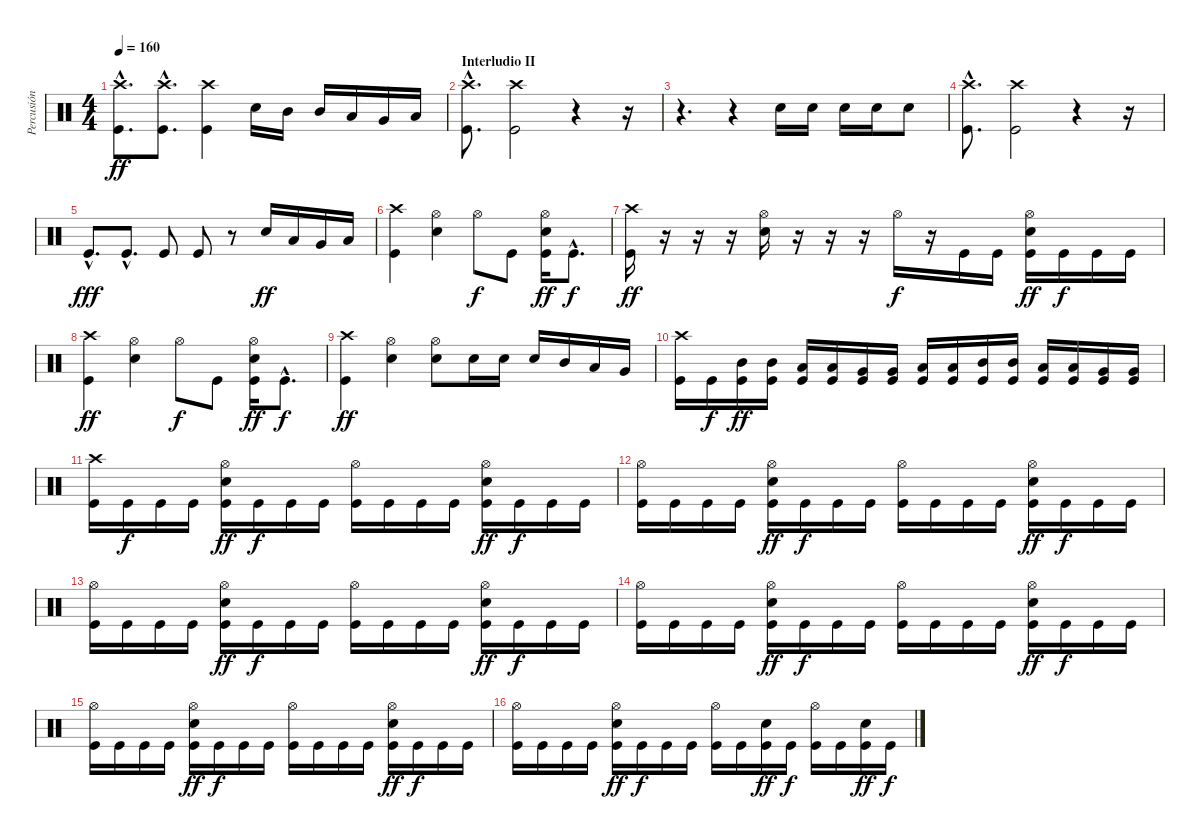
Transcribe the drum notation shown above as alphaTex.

\track ("Percusión" "Percusión") {instrument percussion}
\staff {score}
\articulation defaults
\ts (4 4)
\tempo 160
\clef neutral
\ks c
("Kick (hit)"{hac} "Crash high (hit)"{hac}).8{d dy ff} ("Kick (hit)"{hac} "Crash high (hit)"{hac}).8{d} ("Kick (hit)" "Crash high (hit)").4 "Electric Snare (hit)".16 "Mid Tom (hit)".16 "Mid Tom (hit)".16 "Low Tom (hit)".16 "Very Low Tom (hit)".16 "Low Floor Tom (hit)".16 |
\section ("" "Interludio II")
("Kick (hit)"{hac} "Crash high (hit)"{hac}).8{d} ("Kick (hit)" "Crash high (hit)").2 r.4 r.16 |
r.4{d} r.4 "Electric Snare (hit)".16 "Electric Snare (hit)".16 "Electric Snare (hit)".16 "Electric Snare (hit)".16 "Electric Snare (hit)".8 |
("Kick (hit)"{hac} "Crash high (hit)"{hac}).8{d} ("Kick (hit)" "Crash high (hit)").2 r.4 r.16 |
"Kick (hit)"{hac}.8{d dy fff} "Kick (hit)"{hac}.8{d} "Kick (hit)".8 "Kick (hit)".8 r.8 "Electric Snare (hit)".16{dy ff} "Low Tom (hit)".16 "Very Low Tom (hit)".16 "Low Floor Tom (hit)".16 |
("Kick (hit)" "Crash high (hit)").4 ("Electric Snare (hit)" "Hi-Hat (open)").4 "Hi-Hat (open)".8{dy f} "Kick (hit)".8 ("Kick (hit)" "Electric Snare (hit)" "Hi-Hat (open)").16{dy ff} "Kick (hit)"{hac}.8{d dy f} |
("Kick (hit)" "Crash high (hit)").16{dy ff} r.16 r.16 r.16 ("Electric Snare (hit)" "Hi-Hat (open)").16 r.16 r.16 r.16 "Hi-Hat (open)".16{dy f} r.16 "Kick (hit)".16 "Kick (hit)".16 ("Kick (hit)" "Electric Snare (hit)" "Hi-Hat (open)").16{dy ff} "Kick (hit)".16{dy f} "Kick (hit)".16 "Kick (hit)".16 |
("Kick (hit)" "Crash high (hit)").4{dy ff} ("Electric Snare (hit)" "Hi-Hat (open)").4 "Hi-Hat (open)".8{dy f} "Kick (hit)".8 ("Kick (hit)" "Electric Snare (hit)" "Hi-Hat (open)").16{dy ff} "Kick (hit)"{hac}.8{d dy f} |
("Kick (hit)" "Crash high (hit)").4{dy ff} ("Electric Snare (hit)" "Hi-Hat (open)").4 ("Electric Snare (hit)" "Hi-Hat (open)").8 "Electric Snare (hit)".16 "Electric Snare (hit)".16 "Electric Snare (hit)".16 "Mid Tom (hit)".16 "Low Tom (hit)".16 "Very Low Tom (hit)".16 |
("Kick (hit)" "Crash high (hit)").16 "Kick (hit)".16{dy f} ("Kick (hit)" "Mid Tom (hit)").16{dy ff} ("Kick (hit)" "Mid Tom (hit)").16 ("Kick (hit)" "Low Tom (hit)").16 ("Kick (hit)" "Low Tom (hit)").16 ("Kick (hit)" "Very Low Tom (hit)").16 ("Kick (hit)" "Very Low Tom (hit)").16 ("Kick (hit)" "Low Floor Tom (hit)").16 ("Kick (hit)" "Low Floor Tom (hit)").16 ("Kick (hit)" "Mid Tom (hit)").16 ("Kick (hit)" "Mid Tom (hit)").16 ("Kick (hit)" "Low Tom (hit)").16 ("Kick (hit)" "Low Tom (hit)").16 ("Kick (hit)" "Very Low Tom (hit)").16 ("Kick (hit)" "Very Low Tom (hit)").16 |
("Kick (hit)" "Crash high (hit)").16 "Kick (hit)".16{dy f} "Kick (hit)".16 "Kick (hit)".16 ("Kick (hit)" "Electric Snare (hit)" "Hi-Hat (open)").16{dy ff} "Kick (hit)".16{dy f} "Kick (hit)".16 "Kick (hit)".16 ("Kick (hit)" "Hi-Hat (open)").16 "Kick (hit)".16 "Kick (hit)".16 "Kick (hit)".16 ("Kick (hit)" "Electric Snare (hit)" "Hi-Hat (open)").16{dy ff} "Kick (hit)".16{dy f} "Kick (hit)".16 "Kick (hit)".16 |
("Kick (hit)" "Hi-Hat (open)").16 "Kick (hit)".16 "Kick (hit)".16 "Kick (hit)".16 ("Kick (hit)" "Electric Snare (hit)" "Hi-Hat (open)").16{dy ff} "Kick (hit)".16{dy f} "Kick (hit)".16 "Kick (hit)".16 ("Kick (hit)" "Hi-Hat (open)").16 "Kick (hit)".16 "Kick (hit)".16 "Kick (hit)".16 ("Kick (hit)" "Electric Snare (hit)" "Hi-Hat (open)").16{dy ff} "Kick (hit)".16{dy f} "Kick (hit)".16 "Kick (hit)".16 |
("Kick (hit)" "Hi-Hat (open)").16 "Kick (hit)".16 "Kick (hit)".16 "Kick (hit)".16 ("Kick (hit)" "Electric Snare (hit)" "Hi-Hat (open)").16{dy ff} "Kick (hit)".16{dy f} "Kick (hit)".16 "Kick (hit)".16 ("Kick (hit)" "Hi-Hat (open)").16 "Kick (hit)".16 "Kick (hit)".16 "Kick (hit)".16 ("Kick (hit)" "Electric Snare (hit)" "Hi-Hat (open)").16{dy ff} "Kick (hit)".16{dy f} "Kick (hit)".16 "Kick (hit)".16 |
("Kick (hit)" "Hi-Hat (open)").16 "Kick (hit)".16 "Kick (hit)".16 "Kick (hit)".16 ("Kick (hit)" "Electric Snare (hit)" "Hi-Hat (open)").16{dy ff} "Kick (hit)".16{dy f} "Kick (hit)".16 "Kick (hit)".16 ("Kick (hit)" "Hi-Hat (open)").16 "Kick (hit)".16 "Kick (hit)".16 "Kick (hit)".16 ("Kick (hit)" "Electric Snare (hit)" "Hi-Hat (open)").16{dy ff} "Kick (hit)".16{dy f} "Kick (hit)".16 "Kick (hit)".16 |
("Kick (hit)" "Hi-Hat (open)").16 "Kick (hit)".16 "Kick (hit)".16 "Kick (hit)".16 ("Kick (hit)" "Electric Snare (hit)" "Hi-Hat (open)").16{dy ff} "Kick (hit)".16{dy f} "Kick (hit)".16 "Kick (hit)".16 ("Kick (hit)" "Hi-Hat (open)").16 "Kick (hit)".16 "Kick (hit)".16 "Kick (hit)".16 ("Kick (hit)" "Electric Snare (hit)" "Hi-Hat (open)").16{dy ff} "Kick (hit)".16{dy f} "Kick (hit)".16 "Kick (hit)".16 |
("Kick (hit)" "Hi-Hat (open)").16 "Kick (hit)".16 "Kick (hit)".16 "Kick (hit)".16 ("Kick (hit)" "Electric Snare (hit)" "Hi-Hat (open)").16{dy ff} "Kick (hit)".16{dy f} "Kick (hit)".16 "Kick (hit)".16 ("Kick (hit)" "Hi-Hat (open)").16 "Kick (hit)".16 ("Kick (hit)" "Electric Snare (hit)").16{dy ff} "Kick (hit)".16{dy f} ("Kick (hit)" "Hi-Hat (open)").16 "Kick (hit)".16 ("Kick (hit)" "Electric Snare (hit)").16{dy ff} "Kick (hit)".16{dy f}
